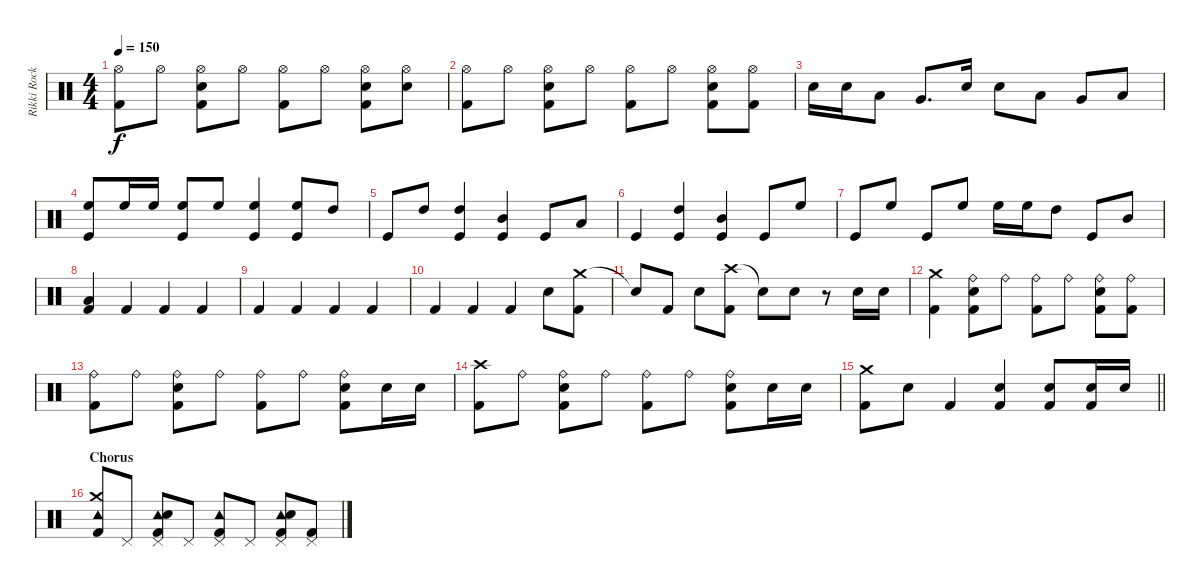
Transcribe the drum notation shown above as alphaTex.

\track ("Rikki Rockett - Drums" "Rikki Rock") {instrument percussion}
\staff {score}
\articulation defaults
\ts (4 4)
\tempo 150
\clef neutral
\ks c
("Hi-Hat (open)" "Kick (hit) 2").8{dy f} "Hi-Hat (open)".8 ("Hi-Hat (open)" "Electric Snare (hit)" "Kick (hit) 2").8 "Hi-Hat (open)".8 ("Hi-Hat (open)" "Kick (hit) 2").8 "Hi-Hat (open)".8 ("Hi-Hat (open)" "Electric Snare (hit)" "Kick (hit) 2").8 ("Hi-Hat (open)" "Electric Snare (hit)").8 |
("Hi-Hat (open)" "Kick (hit) 2").8 "Hi-Hat (open)".8 ("Hi-Hat (open)" "Electric Snare (hit)" "Kick (hit) 2").8 "Hi-Hat (open)".8 ("Hi-Hat (open)" "Kick (hit) 2").8 "Hi-Hat (open)".8 ("Hi-Hat (open)" "Electric Snare (hit)" "Kick (hit) 2").8 ("Hi-Hat (open)" "Kick (hit) 2").8 |
"Electric Snare (hit)".16 "Electric Snare (hit)".16 "Low Tom (hit)".8 "Very Low Tom (hit)".8{d} "Electric Snare (hit)".16 "Electric Snare (hit)".8 "Low Tom (hit)".8 "Very Low Tom (hit)".8 "Low Floor Tom (hit)".8 |
("High Floor Tom (hit)" "Kick (hit)").8 "High Floor Tom (hit)".16 "High Floor Tom (hit)".16 ("High Floor Tom (hit)" "Kick (hit)").8 "High Floor Tom (hit)".8 ("High Floor Tom (hit)" "Kick (hit)").4 ("High Floor Tom (hit)" "Kick (hit)").8 "High Tom (hit)".8 |
"Kick (hit)".8 "High Tom (hit)".8 ("High Tom (hit)" "Kick (hit)").4 ("Mid Tom (hit)" "Kick (hit)").4 "Kick (hit)".8 "Low Tom (hit)".8 |
"Kick (hit)".4 ("High Tom (hit)" "Kick (hit)").4 ("Mid Tom (hit)" "Kick (hit)").4 "Kick (hit)".8 "High Floor Tom (hit)".8 |
"Kick (hit)".8 "High Floor Tom (hit)".8 "Kick (hit)".8 "High Floor Tom (hit)".8 "High Floor Tom (hit)".16 "High Floor Tom (hit)".16 "High Tom (hit)".8 "Kick (hit)".8 "Mid Tom (hit)".8 |
("Low Tom (hit)" "Kick (hit) 2").4 "Kick (hit) 2".4 "Kick (hit) 2".4 "Kick (hit) 2".4 |
"Kick (hit) 2".4 "Kick (hit) 2".4 "Kick (hit) 2".4 "Kick (hit) 2".4 |
"Kick (hit) 2".4 "Kick (hit) 2".4 "Kick (hit) 2".4 "Electric Snare (hit)".8 ("Crash medium (hit)" "Kick (hit) 2").8 |
"Snare (hit)"{t}.8 "Kick (hit) 2".8 "Electric Snare (hit)".8 ("Crash high (hit)" "Kick (hit) 2").8 "Snare (hit)"{t}.8 "Electric Snare (hit)".8 r.8 "Electric Snare (hit)".16 "Electric Snare (hit)".16 |
("Crash medium (hit)" "Kick (hit) 2").4 ("Ride (bell)" "Electric Snare (hit)" "Kick (hit) 2").8 "Ride (bell)".8 ("Ride (bell)" "Kick (hit) 2").8 "Ride (bell)".8 ("Ride (bell)" "Electric Snare (hit)" "Kick (hit) 2").8 ("Ride (bell)" "Kick (hit) 2").8 |
("Ride (bell)" "Kick (hit) 2").8 "Ride (bell)".8 ("Ride (bell)" "Electric Snare (hit)" "Kick (hit) 2").8 "Ride (bell)".8 ("Ride (bell)" "Kick (hit) 2").8 "Ride (bell)".8 ("Ride (bell)" "Electric Snare (hit)" "Kick (hit) 2").8 "Electric Snare (hit)".16 "Electric Snare (hit)".16 |
("Crash high (hit)" "Kick (hit) 2").8 "Ride (bell)".8 ("Ride (bell)" "Electric Snare (hit)" "Kick (hit) 2").8 "Ride (bell)".8 ("Ride (bell)" "Kick (hit) 2").8 "Ride (bell)".8 ("Ride (bell)" "Electric Snare (hit)" "Kick (hit) 2").8 "Electric Snare (hit)".16 "Electric Snare (hit)".16 |
\barLineRight lightlight
("Crash medium (hit)" "Kick (hit) 2").8 "Electric Snare (hit)".8 "Kick (hit) 2".4 ("Electric Snare (hit)" "Kick (hit) 2").4 ("Electric Snare (hit)" "Kick (hit) 2").8 ("Electric Snare (hit)" "Kick (hit) 2").16 "Electric Snare (hit)".16 |
\section ("" "Chorus")
("Tambourine (hit)" "Crash medium (hit)" "Kick (hit) 2").8 "Pedal Hi-Hat (hit)".8 ("Tambourine (hit)" "Pedal Hi-Hat (hit)" "Electric Snare (hit)" "Kick (hit) 2").8 "Pedal Hi-Hat (hit)".8 ("Tambourine (hit)" "Pedal Hi-Hat (hit)" "Kick (hit) 2").8 "Pedal Hi-Hat (hit)".8 ("Tambourine (hit)" "Pedal Hi-Hat (hit)" "Electric Snare (hit)" "Kick (hit) 2").8 ("Pedal Hi-Hat (hit)" "Kick (hit) 2").8
